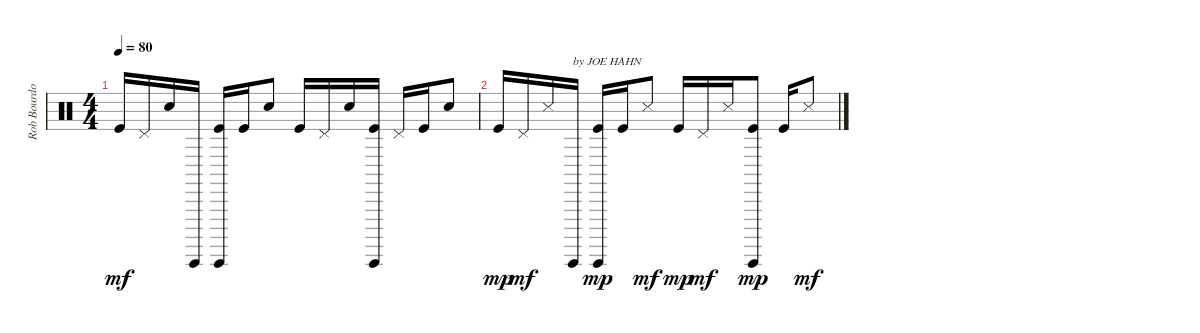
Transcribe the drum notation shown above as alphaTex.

\track ("Rob Bourdon (Batteria)" "Rob Bourdo") {instrument percussion}
\staff {score}
\articulation defaults
\ts (4 4)
\tempo 80
\clef neutral
\ks c "Kick (hit)".16{dy mf} "Pedal Hi-Hat (hit)".16 "Snare (hit) 2".16 "Guiro (hit)".16
("Guiro (hit)" "Kick (hit)").16 "Kick (hit)".16 "Snare (hit) 2".8 "Kick (hit)".16 "Pedal Hi-Hat (hit)".16 "Snare (hit) 2".16 ("Guiro (hit)" "Kick (hit)").16 "Pedal Hi-Hat (hit)".16 "Kick (hit)".16 "Snare (hit) 2".8 |
"Kick (hit)".16{dy mp} "Pedal Hi-Hat (hit)".16{dy mf} "Metronome (hit)".16 "Guiro (hit)".16{txt "by JOE HAHN"} ("Guiro (hit)" "Kick (hit)").16{dy mp} "Kick (hit)".16 "Metronome (hit)".8{dy mf} "Kick (hit)".16{dy mp} "Pedal Hi-Hat (hit)".16{dy mf} "Metronome (hit)".16 ("Guiro (hit)" "Kick (hit)").8{dy mp} "Kick (hit)".16 "Metronome (hit)".8{dy mf}
